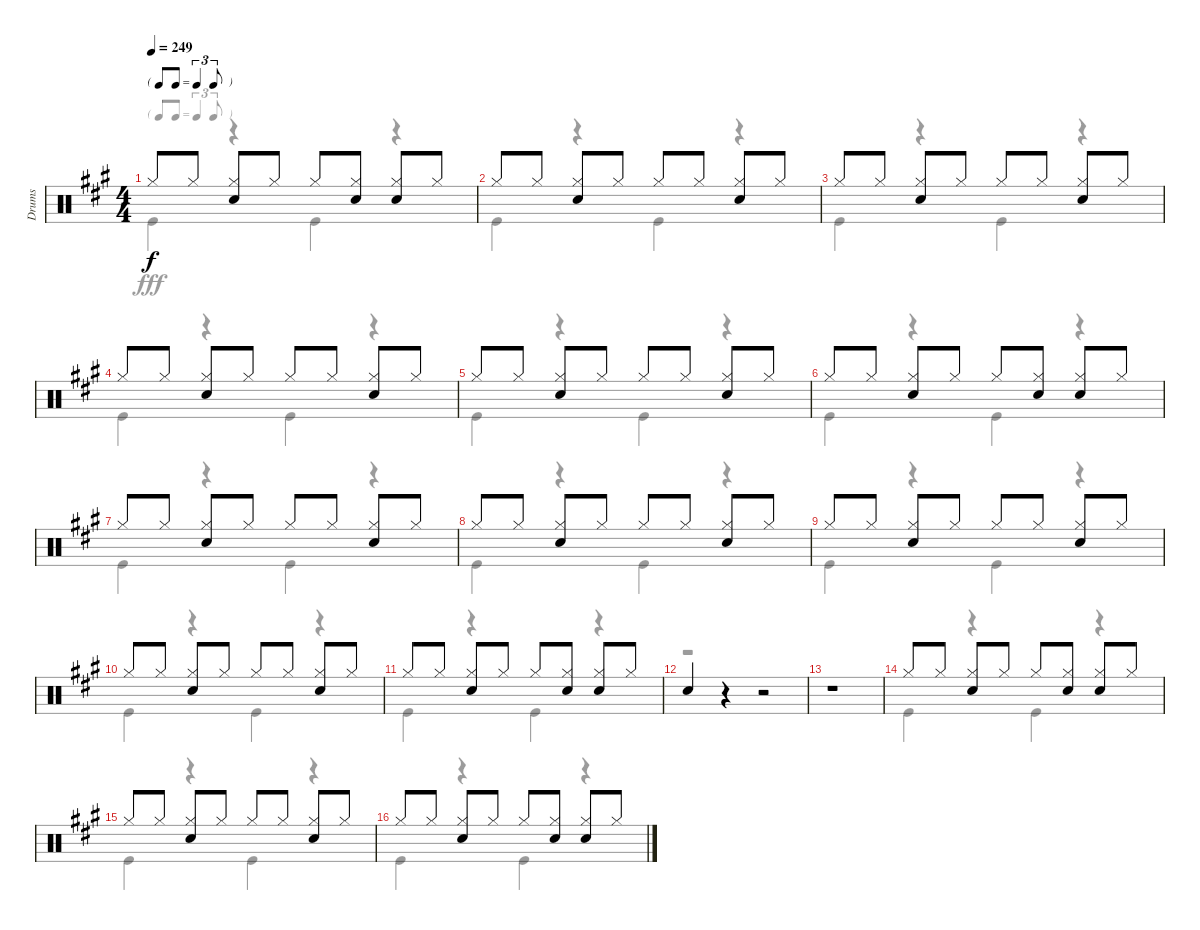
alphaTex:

\track ("Drums" "Drums") {instrument percussion}
\staff {score}
\articulation defaults
\voice
\ts (4 4)
\tf triplet8th
\tempo 249
\clef neutral
\ks a "Hi-Hat (closed)".8{dy f} "Hi-Hat (closed)".8
("Hi-Hat (closed)" "Snare (hit) 2").8 "Hi-Hat (closed)".8 "Hi-Hat (closed)".8 ("Hi-Hat (closed)" "Snare (hit) 2").8 ("Hi-Hat (closed)" "Snare (hit) 2").8 "Hi-Hat (closed)".8 |
"Hi-Hat (closed)".8 "Hi-Hat (closed)".8 ("Hi-Hat (closed)" "Snare (hit) 2").8 "Hi-Hat (closed)".8 "Hi-Hat (closed)".8 "Hi-Hat (closed)".8 ("Hi-Hat (closed)" "Snare (hit) 2").8 "Hi-Hat (closed)".8 |
"Hi-Hat (closed)".8 "Hi-Hat (closed)".8 ("Hi-Hat (closed)" "Snare (hit) 2").8 "Hi-Hat (closed)".8 "Hi-Hat (closed)".8 "Hi-Hat (closed)".8 ("Hi-Hat (closed)" "Snare (hit) 2").8 "Hi-Hat (closed)".8 |
"Hi-Hat (closed)".8 "Hi-Hat (closed)".8 ("Hi-Hat (closed)" "Snare (hit) 2").8 "Hi-Hat (closed)".8 "Hi-Hat (closed)".8 "Hi-Hat (closed)".8 ("Hi-Hat (closed)" "Snare (hit) 2").8 "Hi-Hat (closed)".8 |
"Hi-Hat (closed)".8 "Hi-Hat (closed)".8 ("Hi-Hat (closed)" "Snare (hit) 2").8 "Hi-Hat (closed)".8 "Hi-Hat (closed)".8 "Hi-Hat (closed)".8 ("Hi-Hat (closed)" "Snare (hit) 2").8 "Hi-Hat (closed)".8 |
"Hi-Hat (closed)".8 "Hi-Hat (closed)".8 ("Hi-Hat (closed)" "Snare (hit) 2").8 "Hi-Hat (closed)".8 "Hi-Hat (closed)".8 ("Hi-Hat (closed)" "Snare (hit) 2").8 ("Hi-Hat (closed)" "Snare (hit) 2").8 "Hi-Hat (closed)".8 |
"Hi-Hat (closed)".8 "Hi-Hat (closed)".8 ("Hi-Hat (closed)" "Snare (hit) 2").8 "Hi-Hat (closed)".8 "Hi-Hat (closed)".8 "Hi-Hat (closed)".8 ("Hi-Hat (closed)" "Snare (hit) 2").8 "Hi-Hat (closed)".8 |
"Hi-Hat (closed)".8 "Hi-Hat (closed)".8 ("Hi-Hat (closed)" "Snare (hit) 2").8 "Hi-Hat (closed)".8 "Hi-Hat (closed)".8 "Hi-Hat (closed)".8 ("Hi-Hat (closed)" "Snare (hit) 2").8 "Hi-Hat (closed)".8 |
"Hi-Hat (closed)".8 "Hi-Hat (closed)".8 ("Hi-Hat (closed)" "Snare (hit) 2").8 "Hi-Hat (closed)".8 "Hi-Hat (closed)".8 "Hi-Hat (closed)".8 ("Hi-Hat (closed)" "Snare (hit) 2").8 "Hi-Hat (closed)".8 |
"Hi-Hat (closed)".8 "Hi-Hat (closed)".8 ("Hi-Hat (closed)" "Snare (hit) 2").8 "Hi-Hat (closed)".8 "Hi-Hat (closed)".8 "Hi-Hat (closed)".8 ("Hi-Hat (closed)" "Snare (hit) 2").8 "Hi-Hat (closed)".8 |
"Hi-Hat (closed)".8 "Hi-Hat (closed)".8 ("Hi-Hat (closed)" "Snare (hit) 2").8 "Hi-Hat (closed)".8 "Hi-Hat (closed)".8 ("Hi-Hat (closed)" "Snare (hit) 2").8 ("Hi-Hat (closed)" "Snare (hit) 2").8 "Hi-Hat (closed)".8 |
"Snare (hit) 2".4 r.4 r.2 |
r.1 |
"Hi-Hat (closed)".8 "Hi-Hat (closed)".8 ("Hi-Hat (closed)" "Snare (hit) 2").8 "Hi-Hat (closed)".8 "Hi-Hat (closed)".8 ("Hi-Hat (closed)" "Snare (hit) 2").8 ("Hi-Hat (closed)" "Snare (hit) 2").8 "Hi-Hat (closed)".8 |
"Hi-Hat (closed)".8 "Hi-Hat (closed)".8 ("Hi-Hat (closed)" "Snare (hit) 2").8 "Hi-Hat (closed)".8 "Hi-Hat (closed)".8 "Hi-Hat (closed)".8 ("Hi-Hat (closed)" "Snare (hit) 2").8 "Hi-Hat (closed)".8 |
"Hi-Hat (closed)".8 "Hi-Hat (closed)".8 ("Hi-Hat (closed)" "Snare (hit) 2").8 "Hi-Hat (closed)".8 "Hi-Hat (closed)".8 ("Hi-Hat (closed)" "Snare (hit) 2").8 ("Hi-Hat (closed)" "Snare (hit) 2").8 "Hi-Hat (closed)".8
\voice
\clef neutral
\ottava regular
\simile none
\ks a "Kick (hit)".4{dy fff}
r.4 "Kick (hit)".4 r.4 |
"Kick (hit)".4 r.4 "Kick (hit)".4 r.4 |
"Kick (hit)".4 r.4 "Kick (hit)".4 r.4 |
"Kick (hit)".4 r.4 "Kick (hit)".4 r.4 |
"Kick (hit)".4 r.4 "Kick (hit)".4 r.4 |
"Kick (hit)".4 r.4 "Kick (hit)".4 r.4 |
"Kick (hit)".4 r.4 "Kick (hit)".4 r.4 |
"Kick (hit)".4 r.4 "Kick (hit)".4 r.4 |
"Kick (hit)".4 r.4 "Kick (hit)".4 r.4 |
"Kick (hit)".4 r.4 "Kick (hit)".4 r.4 |
"Kick (hit)".4 r.4 "Kick (hit)".4 r.4 |
r.1 |
r.1 |
"Kick (hit)".4 r.4 "Kick (hit)".4 r.4 |
"Kick (hit)".4 r.4 "Kick (hit)".4 r.4 |
"Kick (hit)".4 r.4 "Kick (hit)".4 r.4
